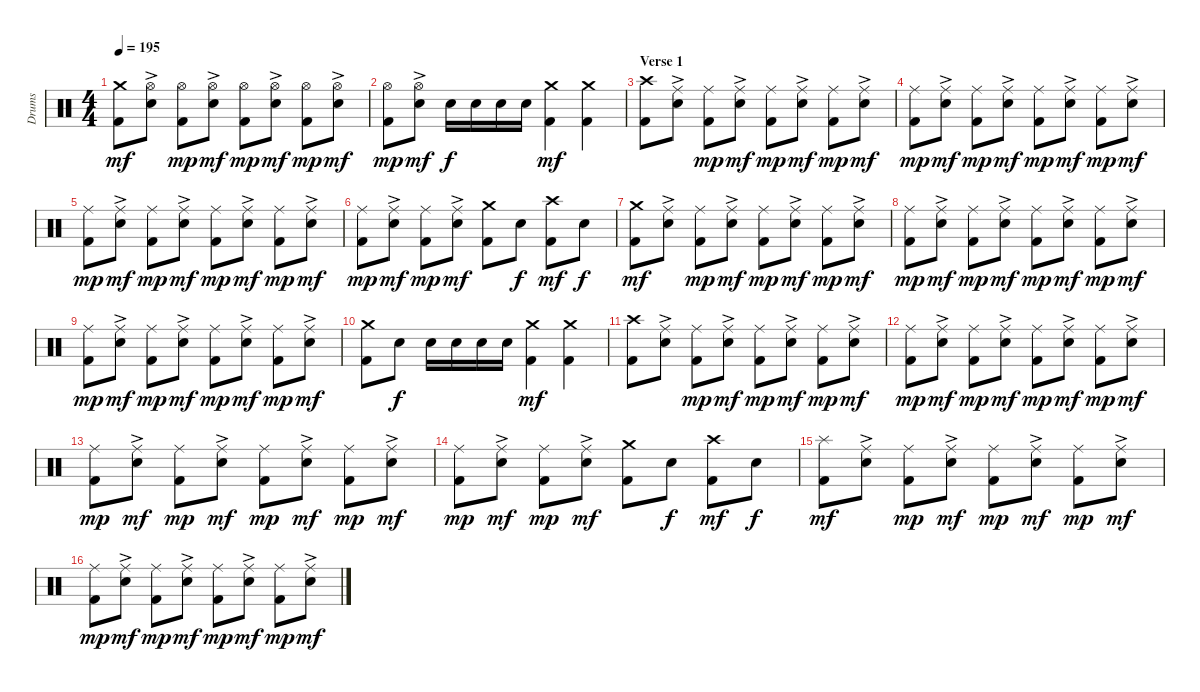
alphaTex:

\track ("Drums" "Drums") {instrument percussion}
\staff {score}
\articulation defaults
\ts (4 4)
\tempo 195
\clef neutral
\ks c
("Crash medium (hit)" "Kick (hit) 2").8{dy mf} ("Hi-Hat (open)"{ac} "Electric Snare (hit)").8 ("Hi-Hat (open)" "Kick (hit) 2").8{dy mp} ("Hi-Hat (open)"{ac} "Electric Snare (hit)").8{dy mf} ("Hi-Hat (open)" "Kick (hit) 2").8{dy mp} ("Hi-Hat (open)"{ac} "Electric Snare (hit)").8{dy mf} ("Hi-Hat (open)" "Kick (hit) 2").8{dy mp} ("Hi-Hat (open)"{ac} "Electric Snare (hit)").8{dy mf} |
("Hi-Hat (open)" "Kick (hit) 2").8{dy mp} ("Hi-Hat (open)"{ac} "Electric Snare (hit)").8{dy mf} "Electric Snare (hit)".16{dy f} "Electric Snare (hit)".16 "Electric Snare (hit)".16 "Electric Snare (hit)".16 ("Crash medium (hit)" "Kick (hit) 2").4{dy mf} ("Crash medium (hit)" "Kick (hit) 2").4 |
\section ("" "Verse 1")
("Crash high (hit)" "Kick (hit) 2").8 ("Ride (middle)"{ac} "Electric Snare (hit)").8 ("Ride (middle)" "Kick (hit) 2").8{dy mp} ("Ride (middle)"{ac} "Electric Snare (hit)").8{dy mf} ("Ride (middle)" "Kick (hit) 2").8{dy mp} ("Ride (middle)"{ac} "Electric Snare (hit)").8{dy mf} ("Ride (middle)" "Kick (hit) 2").8{dy mp} ("Ride (middle)"{ac} "Electric Snare (hit)").8{dy mf} |
("Ride (middle)" "Kick (hit) 2").8{dy mp} ("Ride (middle)"{ac} "Electric Snare (hit)").8{dy mf} ("Ride (middle)" "Kick (hit) 2").8{dy mp} ("Ride (middle)"{ac} "Electric Snare (hit)").8{dy mf} ("Ride (middle)" "Kick (hit) 2").8{dy mp} ("Ride (middle)"{ac} "Electric Snare (hit)").8{dy mf} ("Ride (middle)" "Kick (hit) 2").8{dy mp} ("Ride (middle)"{ac} "Electric Snare (hit)").8{dy mf} |
("Ride (middle)" "Kick (hit) 2").8{dy mp} ("Ride (middle)"{ac} "Electric Snare (hit)").8{dy mf} ("Ride (middle)" "Kick (hit) 2").8{dy mp} ("Ride (middle)"{ac} "Electric Snare (hit)").8{dy mf} ("Ride (middle)" "Kick (hit) 2").8{dy mp} ("Ride (middle)"{ac} "Electric Snare (hit)").8{dy mf} ("Ride (middle)" "Kick (hit) 2").8{dy mp} ("Ride (middle)"{ac} "Electric Snare (hit)").8{dy mf} |
("Ride (middle)" "Kick (hit) 2").8{dy mp} ("Ride (middle)"{ac} "Electric Snare (hit)").8{dy mf} ("Ride (middle)" "Kick (hit) 2").8{dy mp} ("Ride (middle)"{ac} "Electric Snare (hit)").8{dy mf} ("Crash medium (hit)" "Kick (hit) 2").8 "Electric Snare (hit)".8{dy f} ("Crash high (hit)" "Kick (hit) 2").8{dy mf} "Electric Snare (hit)".8{dy f} |
("Crash medium (hit)" "Kick (hit) 2").8{dy mf} ("Ride (middle)"{ac} "Electric Snare (hit)").8 ("Ride (middle)" "Kick (hit) 2").8{dy mp} ("Ride (middle)"{ac} "Electric Snare (hit)").8{dy mf} ("Ride (middle)" "Kick (hit) 2").8{dy mp} ("Ride (middle)"{ac} "Electric Snare (hit)").8{dy mf} ("Ride (middle)" "Kick (hit) 2").8{dy mp} ("Ride (middle)"{ac} "Electric Snare (hit)").8{dy mf} |
("Ride (middle)" "Kick (hit) 2").8{dy mp} ("Ride (middle)"{ac} "Electric Snare (hit)").8{dy mf} ("Ride (middle)" "Kick (hit) 2").8{dy mp} ("Ride (middle)"{ac} "Electric Snare (hit)").8{dy mf} ("Ride (middle)" "Kick (hit) 2").8{dy mp} ("Ride (middle)"{ac} "Electric Snare (hit)").8{dy mf} ("Ride (middle)" "Kick (hit) 2").8{dy mp} ("Ride (middle)"{ac} "Electric Snare (hit)").8{dy mf} |
("Ride (middle)" "Kick (hit) 2").8{dy mp} ("Ride (middle)"{ac} "Electric Snare (hit)").8{dy mf} ("Ride (middle)" "Kick (hit) 2").8{dy mp} ("Ride (middle)"{ac} "Electric Snare (hit)").8{dy mf} ("Ride (middle)" "Kick (hit) 2").8{dy mp} ("Ride (middle)"{ac} "Electric Snare (hit)").8{dy mf} ("Ride (middle)" "Kick (hit) 2").8{dy mp} ("Ride (middle)"{ac} "Electric Snare (hit)").8{dy mf} |
("Crash medium (hit)" "Kick (hit) 2").8 "Electric Snare (hit)".8{dy f} "Electric Snare (hit)".16 "Electric Snare (hit)".16 "Electric Snare (hit)".16 "Electric Snare (hit)".16 ("Crash medium (hit)" "Kick (hit) 2").4{dy mf} ("Crash medium (hit)" "Kick (hit) 2").4 |
("Crash high (hit)" "Kick (hit) 2").8 ("Ride (middle)"{ac} "Electric Snare (hit)").8 ("Ride (middle)" "Kick (hit) 2").8{dy mp} ("Ride (middle)"{ac} "Electric Snare (hit)").8{dy mf} ("Ride (middle)" "Kick (hit) 2").8{dy mp} ("Ride (middle)"{ac} "Electric Snare (hit)").8{dy mf} ("Ride (middle)" "Kick (hit) 2").8{dy mp} ("Ride (middle)"{ac} "Electric Snare (hit)").8{dy mf} |
("Ride (middle)" "Kick (hit) 2").8{dy mp} ("Ride (middle)"{ac} "Electric Snare (hit)").8{dy mf} ("Ride (middle)" "Kick (hit) 2").8{dy mp} ("Ride (middle)"{ac} "Electric Snare (hit)").8{dy mf} ("Ride (middle)" "Kick (hit) 2").8{dy mp} ("Ride (middle)"{ac} "Electric Snare (hit)").8{dy mf} ("Ride (middle)" "Kick (hit) 2").8{dy mp} ("Ride (middle)"{ac} "Electric Snare (hit)").8{dy mf} |
("Ride (middle)" "Kick (hit) 2").8{dy mp} ("Ride (middle)"{ac} "Electric Snare (hit)").8{dy mf} ("Ride (middle)" "Kick (hit) 2").8{dy mp} ("Ride (middle)"{ac} "Electric Snare (hit)").8{dy mf} ("Ride (middle)" "Kick (hit) 2").8{dy mp} ("Ride (middle)"{ac} "Electric Snare (hit)").8{dy mf} ("Ride (middle)" "Kick (hit) 2").8{dy mp} ("Ride (middle)"{ac} "Electric Snare (hit)").8{dy mf} |
("Ride (middle)" "Kick (hit) 2").8{dy mp} ("Ride (middle)"{ac} "Electric Snare (hit)").8{dy mf} ("Ride (middle)" "Kick (hit) 2").8{dy mp} ("Ride (middle)"{ac} "Electric Snare (hit)").8{dy mf} ("Crash medium (hit)" "Kick (hit) 2").8 "Electric Snare (hit)".8{dy f} ("Crash high (hit)" "Kick (hit) 2").8{dy mf} "Electric Snare (hit)".8{dy f} |
("Splash (hit)" "Kick (hit) 2").8{dy mf} ("Ride (middle)"{ac} "Electric Snare (hit)").8 ("Ride (middle)" "Kick (hit) 2").8{dy mp} ("Ride (middle)"{ac} "Electric Snare (hit)").8{dy mf} ("Ride (middle)" "Kick (hit) 2").8{dy mp} ("Ride (middle)"{ac} "Electric Snare (hit)").8{dy mf} ("Ride (middle)" "Kick (hit) 2").8{dy mp} ("Ride (middle)"{ac} "Electric Snare (hit)").8{dy mf} |
("Ride (middle)" "Kick (hit) 2").8{dy mp} ("Ride (middle)"{ac} "Electric Snare (hit)").8{dy mf} ("Ride (middle)" "Kick (hit) 2").8{dy mp} ("Ride (middle)"{ac} "Electric Snare (hit)").8{dy mf} ("Ride (middle)" "Kick (hit) 2").8{dy mp} ("Ride (middle)"{ac} "Electric Snare (hit)").8{dy mf} ("Ride (middle)" "Kick (hit) 2").8{dy mp} ("Ride (middle)"{ac} "Electric Snare (hit)").8{dy mf}
